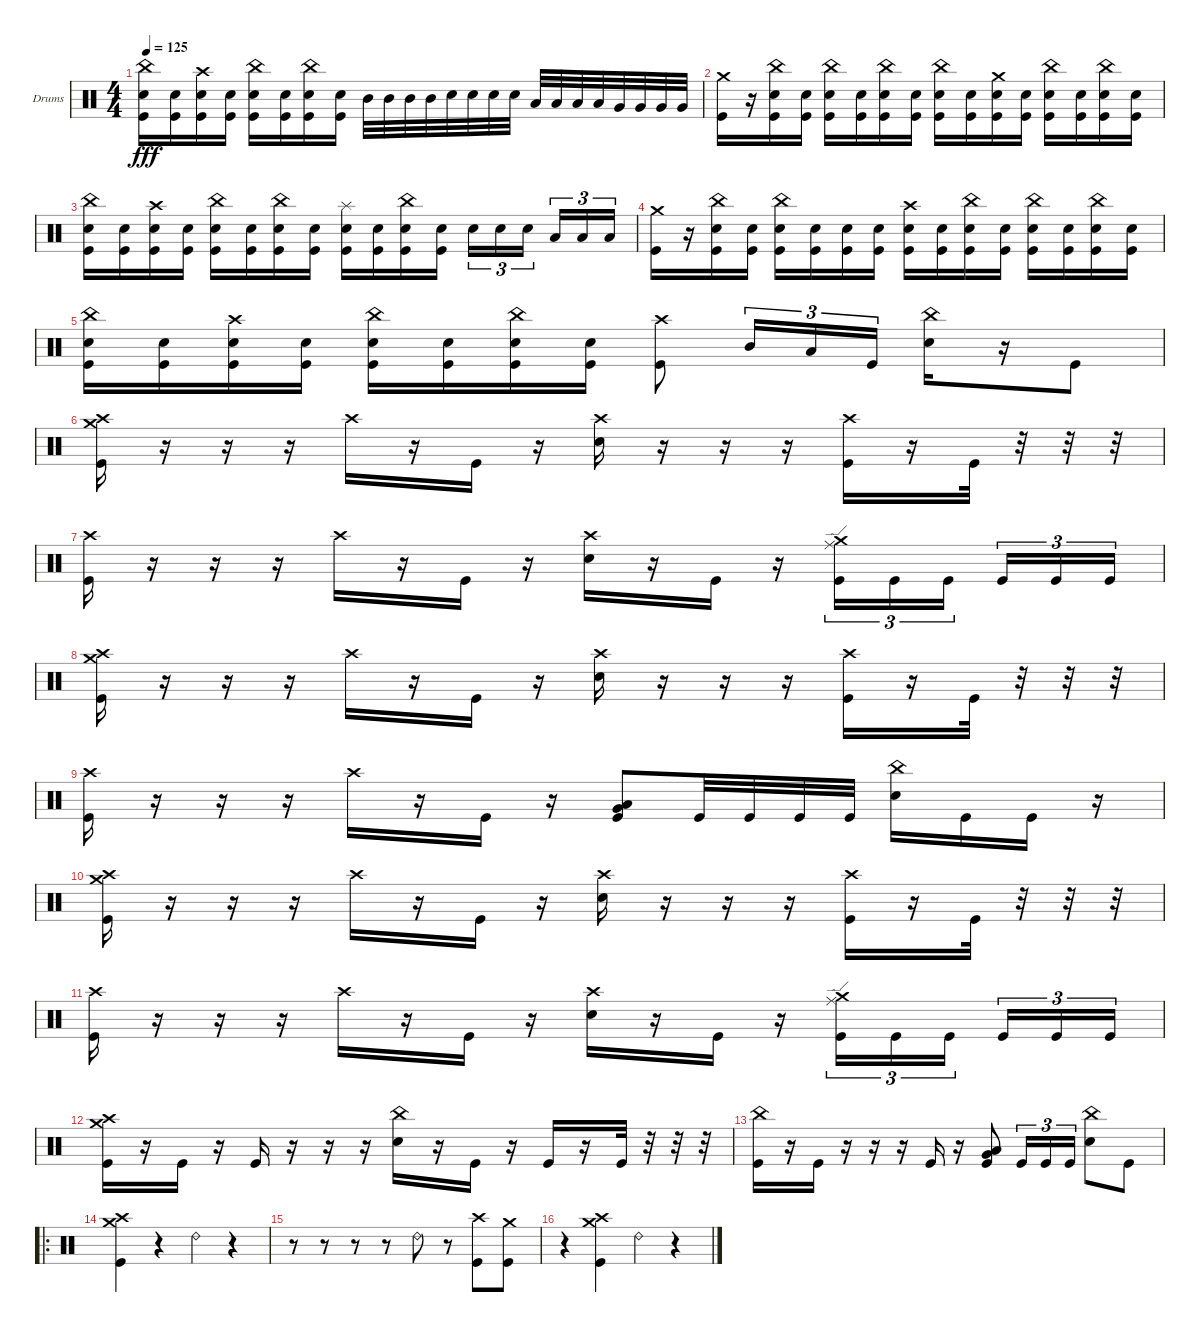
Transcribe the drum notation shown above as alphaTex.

\bracketExtendMode groupsimilarinstruments
\firstSystemTrackNameOrientation horizontal
\otherSystemsTrackNameOrientation horizontal
\track ("Drumkit" "Drums") {instrument percussion}
\staff {score}
\articulation defaults
\ts (4 4)
\tempo 125
\clef neutral
\ks c
("Snare (hit) 2" "Kick (hit)" "China (hit)").16{dy fff} ("Snare (hit) 2" "Kick (hit)").16 ("Snare (hit) 2" "Kick (hit)" "Crash high (hit)").16 ("Snare (hit) 2" "Kick (hit)").16 ("Snare (hit) 2" "Kick (hit)" "China (hit)").16 ("Snare (hit) 2" "Kick (hit)").16 ("Snare (hit) 2" "Kick (hit)" "China (hit)").16 ("Snare (hit) 2" "Kick (hit)").16 "Mid Tom (hit)".32 "Mid Tom (hit)".32 "Mid Tom (hit)".32 "Mid Tom (hit)".32 "Snare (hit) 2".32 "Snare (hit) 2".32 "Snare (hit) 2".32 "Snare (hit) 2".32 "Low Tom (hit)".32 "Low Tom (hit)".32 "Low Tom (hit)".32 "Low Tom (hit)".32 "Very Low Tom (hit)".32 "Very Low Tom (hit)".32 "Very Low Tom (hit)".32 "Very Low Tom (hit)".32 |
("Crash medium (hit)" "Kick (hit)").16 r.16 ("Snare (hit) 2" "Kick (hit)" "China (hit)").16 ("Snare (hit) 2" "Kick (hit)").16 ("Snare (hit) 2" "Kick (hit)" "China (hit)").16 ("Snare (hit) 2" "Kick (hit)").16 ("Snare (hit) 2" "Kick (hit)" "China (hit)").16 ("Snare (hit) 2" "Kick (hit)").16 ("Snare (hit) 2" "Kick (hit)" "China (hit)").16 ("Snare (hit) 2" "Kick (hit)").16 ("Snare (hit) 2" "Kick (hit)" "Crash medium (hit)").16 ("Snare (hit) 2" "Kick (hit)").16 ("Snare (hit) 2" "Kick (hit)" "China (hit)").16 ("Snare (hit) 2" "Kick (hit)").16 ("Snare (hit) 2" "Kick (hit)" "China (hit)").16 ("Snare (hit) 2" "Kick (hit)").16 |
("Snare (hit) 2" "Kick (hit)" "China (hit)").16 ("Snare (hit) 2" "Kick (hit)").16 ("Snare (hit) 2" "Kick (hit)" "Crash high (hit)").16 ("Snare (hit) 2" "Kick (hit)").16 ("Snare (hit) 2" "Kick (hit)" "China (hit)").16 ("Snare (hit) 2" "Kick (hit)").16 ("Snare (hit) 2" "Kick (hit)" "China (hit)").16 ("Snare (hit) 2" "Kick (hit)").16 ("Snare (hit) 2" "Kick (hit)" "Splash (hit)").16 ("Snare (hit) 2" "Kick (hit)").16 ("Snare (hit) 2" "Kick (hit)" "China (hit)").16 ("Snare (hit) 2" "Kick (hit)").16 "Snare (hit) 2".16{tu (3 2)} "Snare (hit) 2".16{tu (3 2)} "Snare (hit) 2".16{tu (3 2)} "Low Tom (hit)".16{tu (3 2)} "Low Tom (hit)".16{tu (3 2)} "Low Tom (hit)".16{tu (3 2)} |
("Crash medium (hit)" "Kick (hit)").16 r.16 ("Snare (hit) 2" "Kick (hit)" "China (hit)").16 ("Snare (hit) 2" "Kick (hit)").16 ("Snare (hit) 2" "Kick (hit)" "China (hit)").16 ("Snare (hit) 2" "Kick (hit)").16 ("Snare (hit) 2" "Kick (hit)").16 ("Snare (hit) 2" "Kick (hit)").16 ("Snare (hit) 2" "Kick (hit)" "Crash high (hit)").16 ("Snare (hit) 2" "Kick (hit)").16 ("Snare (hit) 2" "Kick (hit)" "China (hit)").16 ("Snare (hit) 2" "Kick (hit)").16 ("Snare (hit) 2" "Kick (hit)" "China (hit)").16 ("Snare (hit) 2" "Kick (hit)").16 ("Snare (hit) 2" "Kick (hit)" "China (hit)").16 ("Snare (hit) 2" "Kick (hit)").16 |
("Snare (hit) 2" "Kick (hit)" "China (hit)").16 ("Snare (hit) 2" "Kick (hit)").16 ("Snare (hit) 2" "Kick (hit)" "Crash high (hit)").16 ("Snare (hit) 2" "Kick (hit)").16 ("Snare (hit) 2" "Kick (hit)" "China (hit)").16 ("Snare (hit) 2" "Kick (hit)").16 ("Snare (hit) 2" "Kick (hit)" "China (hit)").16 ("Snare (hit) 2" "Kick (hit)").16 ("Kick (hit)" "Crash high (hit)").8 "Mid Tom (hit)".16{tu (3 2)} "Low Tom (hit)".16{tu (3 2)} "Kick (hit)".16{tu (3 2)} ("Snare (hit) 2" "China (hit)").16 r.16 "Kick (hit)".8 |
("Crash medium (hit)" "Kick (hit)" "Crash high (hit)").16 r.16 r.16 r.16 "Crash high (hit)".16 r.16 "Kick (hit)".16 r.16 ("Crash high (hit)" "Snare (hit) 2").16 r.16 r.16 r.16 ("Crash high (hit)" "Kick (hit)").16 r.16 "Kick (hit)".32 r.32 r.32 r.32 |
("Kick (hit)" "Crash high (hit)").16 r.16 r.16 r.16 "Crash high (hit)".16 r.16 "Kick (hit)".16 r.16 ("Crash high (hit)" "Snare (hit) 2").16 r.16 "Kick (hit)".16 r.16 ("Kick (hit)" "Crash medium (hit)" "Ride (edge)").16{tu (3 2)} "Kick (hit)".16{tu (3 2)} "Kick (hit)".16{tu (3 2)} "Kick (hit)".16{tu (3 2)} "Kick (hit)".16{tu (3 2)} "Kick (hit)".16{tu (3 2)} |
("Crash medium (hit)" "Kick (hit)" "Crash high (hit)").16 r.16 r.16 r.16 "Crash high (hit)".16 r.16 "Kick (hit)".16 r.16 ("Crash high (hit)" "Snare (hit) 2").16 r.16 r.16 r.16 ("Crash high (hit)" "Kick (hit)").16 r.16 "Kick (hit)".32 r.32 r.32 r.32 |
("Kick (hit)" "Crash high (hit)").16 r.16 r.16 r.16 "Crash high (hit)".16 r.16 "Kick (hit)".16 r.16 ("Very Low Tom (hit)" "Low Tom (hit)" "Kick (hit)").8 "Kick (hit)".32 "Kick (hit)".32 "Kick (hit)".32 "Kick (hit)".32 ("Snare (hit) 2" "China (hit)").16 "Kick (hit)".16 "Kick (hit)".16 r.16 |
("Crash medium (hit)" "Kick (hit)" "Crash high (hit)").16 r.16 r.16 r.16 "Crash high (hit)".16 r.16 "Kick (hit)".16 r.16 ("Crash high (hit)" "Snare (hit) 2").16 r.16 r.16 r.16 ("Crash high (hit)" "Kick (hit)").16 r.16 "Kick (hit)".32 r.32 r.32 r.32 |
("Kick (hit)" "Crash high (hit)").16 r.16 r.16 r.16 "Crash high (hit)".16 r.16 "Kick (hit)".16 r.16 ("Crash high (hit)" "Snare (hit) 2").16 r.16 "Kick (hit)".16 r.16 ("Kick (hit)" "Crash medium (hit)" "Ride (edge)").16{tu (3 2)} "Kick (hit)".16{tu (3 2)} "Kick (hit)".16{tu (3 2)} "Kick (hit)".16{tu (3 2)} "Kick (hit)".16{tu (3 2)} "Kick (hit)".16{tu (3 2)} |
("Crash medium (hit)" "Kick (hit)" "Crash high (hit)").16 r.16 "Kick (hit)".16 r.16 "Kick (hit)".16 r.16 r.16 r.16 ("China (hit)" "Snare (hit) 2").16 r.16 "Kick (hit)".16 r.16 "Kick (hit)".16 r.16 "Kick (hit)".32 r.32 r.32 r.32 |
("Kick (hit)" "China (hit)").16 r.16 "Kick (hit)".16 r.16 r.16 r.16 "Kick (hit)".16 r.16 ("Very Low Tom (hit)" "Low Tom (hit)" "Kick (hit)").8 "Kick (hit)".16{tu (3 2)} "Kick (hit)".16{tu (3 2)} "Kick (hit)".16{tu (3 2)} ("Snare (hit) 2" "China (hit)").8 "Kick (hit)".8 |
\ro
("Crash high (hit)" "Crash medium (hit)" "Kick (hit)").4 r.4 "Ride (bell) 2".4 r.4 |
r.8 r.8 r.8 r.8 "Ride (bell) 2".8 r.8 ("Kick (hit)" "Crash high (hit)").8 ("Crash medium (hit)" "Kick (hit)").8 |
r.4 ("Crash medium (hit)" "Crash high (hit)" "Kick (hit)").4 "Ride (bell) 2".4 r.4
